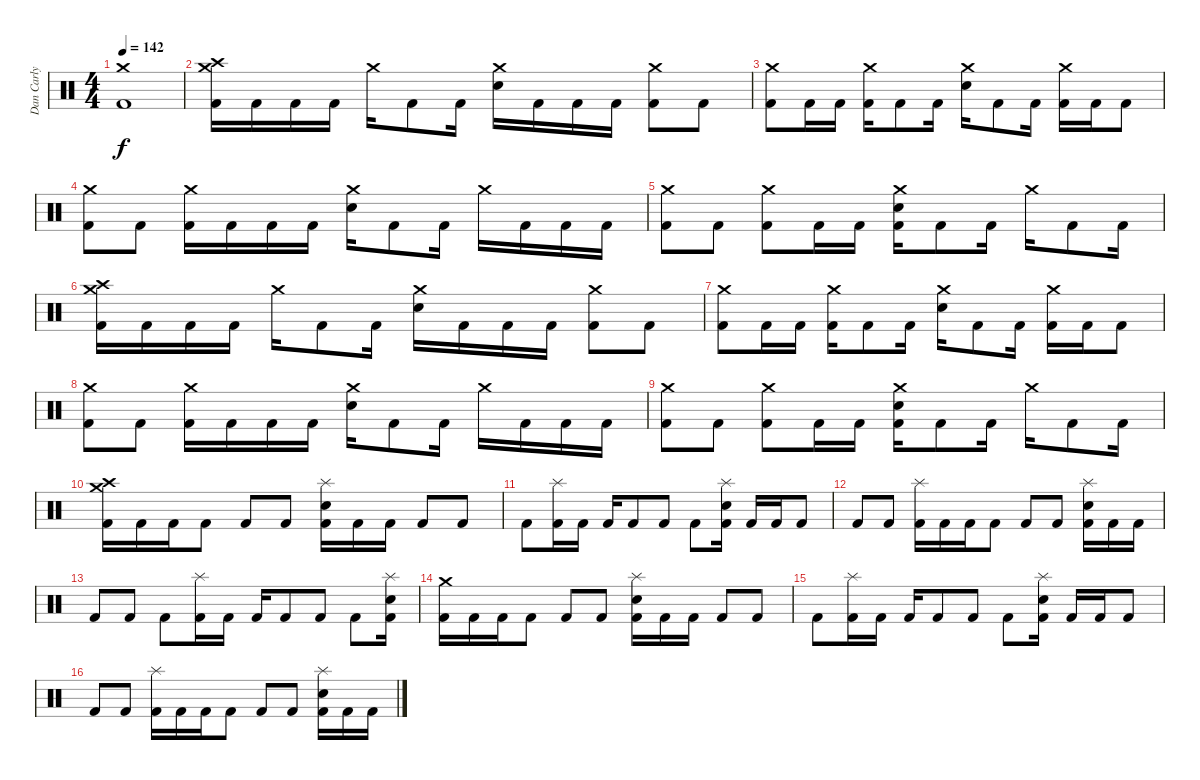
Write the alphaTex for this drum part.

\track ("Dan Carly" "Dan Carly") {instrument percussion}
\staff {score}
\articulation defaults
\ts (4 4)
\tempo 142
\clef neutral
\ks c
("Crash medium (hit)" "Kick (hit) 2").1{dy f} |
("Crash medium (hit)" "Crash high (hit)" "Kick (hit) 2").16 "Kick (hit) 2".16 "Kick (hit) 2".16 "Kick (hit) 2".16 "Crash medium (hit)".16 "Kick (hit) 2".8 "Kick (hit) 2".16 ("Crash medium (hit)" "Electric Snare (hit)").16 "Kick (hit) 2".16 "Kick (hit) 2".16 "Kick (hit) 2".16 ("Crash medium (hit)" "Kick (hit) 2").8 "Kick (hit) 2".8 |
("Crash medium (hit)" "Kick (hit) 2").8 "Kick (hit) 2".16 "Kick (hit) 2".16 ("Crash medium (hit)" "Kick (hit) 2").16 "Kick (hit) 2".8 "Kick (hit) 2".16 ("Crash medium (hit)" "Electric Snare (hit)").16 "Kick (hit) 2".8 "Kick (hit) 2".16 ("Crash medium (hit)" "Kick (hit) 2").16 "Kick (hit) 2".16 "Kick (hit) 2".8 |
("Crash medium (hit)" "Kick (hit) 2").8 "Kick (hit) 2".8 ("Crash medium (hit)" "Kick (hit) 2").16 "Kick (hit) 2".16 "Kick (hit) 2".16 "Kick (hit) 2".16 ("Crash medium (hit)" "Electric Snare (hit)").16 "Kick (hit) 2".8 "Kick (hit) 2".16 "Crash medium (hit)".16 "Kick (hit) 2".16 "Kick (hit) 2".16 "Kick (hit) 2".16 |
("Crash medium (hit)" "Kick (hit) 2").8 "Kick (hit) 2".8 ("Crash medium (hit)" "Kick (hit) 2").8 "Kick (hit) 2".16 "Kick (hit) 2".16 ("Crash medium (hit)" "Electric Snare (hit)" "Kick (hit) 2").16 "Kick (hit) 2".8 "Kick (hit) 2".16 "Crash medium (hit)".16 "Kick (hit) 2".8 "Kick (hit) 2".16 |
("Crash medium (hit)" "Crash high (hit)" "Kick (hit) 2").16 "Kick (hit) 2".16 "Kick (hit) 2".16 "Kick (hit) 2".16 "Crash medium (hit)".16 "Kick (hit) 2".8 "Kick (hit) 2".16 ("Crash medium (hit)" "Electric Snare (hit)").16 "Kick (hit) 2".16 "Kick (hit) 2".16 "Kick (hit) 2".16 ("Crash medium (hit)" "Kick (hit) 2").8 "Kick (hit) 2".8 |
("Crash medium (hit)" "Kick (hit) 2").8 "Kick (hit) 2".16 "Kick (hit) 2".16 ("Crash medium (hit)" "Kick (hit) 2").16 "Kick (hit) 2".8 "Kick (hit) 2".16 ("Crash medium (hit)" "Electric Snare (hit)").16 "Kick (hit) 2".8 "Kick (hit) 2".16 ("Crash medium (hit)" "Kick (hit) 2").16 "Kick (hit) 2".16 "Kick (hit) 2".8 |
("Crash medium (hit)" "Kick (hit) 2").8 "Kick (hit) 2".8 ("Crash medium (hit)" "Kick (hit) 2").16 "Kick (hit) 2".16 "Kick (hit) 2".16 "Kick (hit) 2".16 ("Crash medium (hit)" "Electric Snare (hit)").16 "Kick (hit) 2".8 "Kick (hit) 2".16 "Crash medium (hit)".16 "Kick (hit) 2".16 "Kick (hit) 2".16 "Kick (hit) 2".16 |
("Crash medium (hit)" "Kick (hit) 2").8 "Kick (hit) 2".8 ("Crash medium (hit)" "Kick (hit) 2").8 "Kick (hit) 2".16 "Kick (hit) 2".16 ("Crash medium (hit)" "Electric Snare (hit)" "Kick (hit) 2").16 "Kick (hit) 2".8 "Kick (hit) 2".16 "Crash medium (hit)".16 "Kick (hit) 2".8 "Kick (hit) 2".16 |
("Crash medium (hit)" "Crash high (hit)" "Kick (hit) 2").16 "Kick (hit) 2".16 "Kick (hit) 2".16 "Kick (hit) 2".8 "Kick (hit) 2".8 "Kick (hit) 2".8 ("Splash (hit)" "Electric Snare (hit)" "Kick (hit) 2").16 "Kick (hit) 2".16 "Kick (hit) 2".16 "Kick (hit) 2".8 "Kick (hit) 2".8 |
"Kick (hit) 2".8 ("Splash (hit)" "Kick (hit) 2").16 "Kick (hit) 2".16 "Kick (hit) 2".16 "Kick (hit) 2".8 "Kick (hit) 2".8 "Kick (hit) 2".8 ("Splash (hit)" "Electric Snare (hit)" "Kick (hit) 2").16 "Kick (hit) 2".16 "Kick (hit) 2".16 "Kick (hit) 2".8 |
"Kick (hit) 2".8 "Kick (hit) 2".8 ("Splash (hit)" "Kick (hit) 2").16 "Kick (hit) 2".16 "Kick (hit) 2".16 "Kick (hit) 2".8 "Kick (hit) 2".8 "Kick (hit) 2".8 ("Splash (hit)" "Electric Snare (hit)" "Kick (hit) 2").16 "Kick (hit) 2".16 "Kick (hit) 2".16 |
"Kick (hit) 2".8 "Kick (hit) 2".8 "Kick (hit) 2".8 ("Splash (hit)" "Kick (hit) 2").16 "Kick (hit) 2".16 "Kick (hit) 2".16 "Kick (hit) 2".8 "Kick (hit) 2".8 "Kick (hit) 2".8 ("Splash (hit)" "Electric Snare (hit)" "Kick (hit) 2").16 |
("Crash medium (hit)" "Kick (hit) 2").16 "Kick (hit) 2".16 "Kick (hit) 2".16 "Kick (hit) 2".8 "Kick (hit) 2".8 "Kick (hit) 2".8 ("Splash (hit)" "Electric Snare (hit)" "Kick (hit) 2").16 "Kick (hit) 2".16 "Kick (hit) 2".16 "Kick (hit) 2".8 "Kick (hit) 2".8 |
"Kick (hit) 2".8 ("Splash (hit)" "Kick (hit) 2").16 "Kick (hit) 2".16 "Kick (hit) 2".16 "Kick (hit) 2".8 "Kick (hit) 2".8 "Kick (hit) 2".8 ("Splash (hit)" "Electric Snare (hit)" "Kick (hit) 2").16 "Kick (hit) 2".16 "Kick (hit) 2".16 "Kick (hit) 2".8 |
"Kick (hit) 2".8 "Kick (hit) 2".8 ("Splash (hit)" "Kick (hit) 2").16 "Kick (hit) 2".16 "Kick (hit) 2".16 "Kick (hit) 2".8 "Kick (hit) 2".8 "Kick (hit) 2".8 ("Splash (hit)" "Electric Snare (hit)" "Kick (hit) 2").16 "Kick (hit) 2".16 "Kick (hit) 2".16
